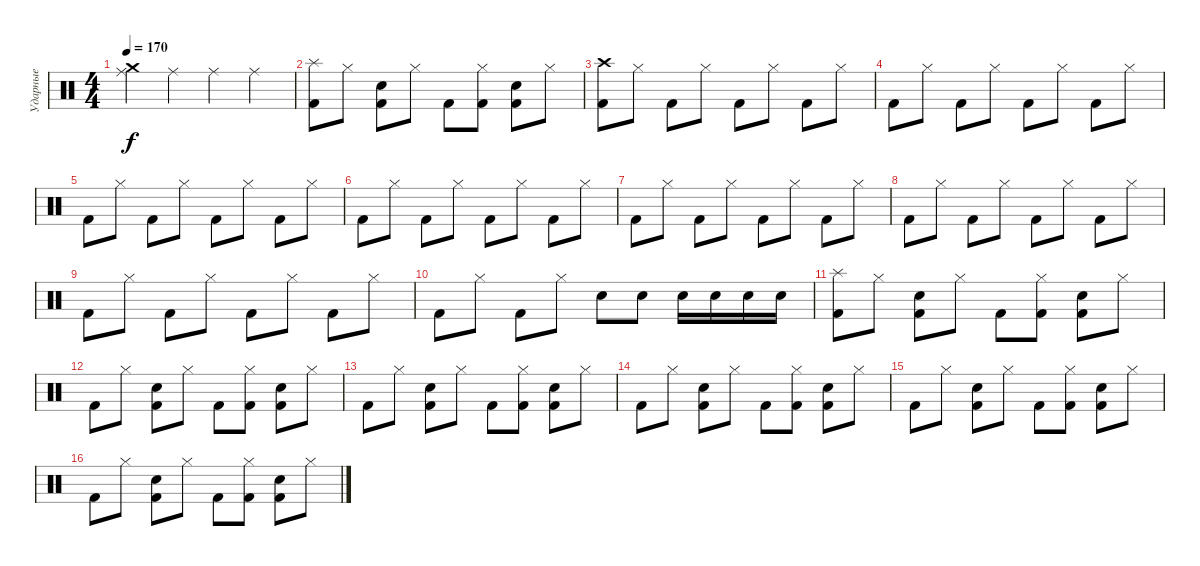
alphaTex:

\track ("Ударные" "Ударные") {instrument percussion}
\staff {score}
\articulation defaults
\ts (4 4)
\tempo 170
\clef neutral
\ks c
("Ride (middle)" "Crash medium (hit)").4{dy f} "Ride (middle)".4 "Ride (middle)".4 "Ride (middle)".4 |
("Splash (hit)" "Kick (hit) 2").8 "Hi-Hat (closed)".8 ("Kick (hit) 2" "Snare (hit) 2").8 "Hi-Hat (closed)".8 "Kick (hit) 2".8 ("Hi-Hat (closed)" "Kick (hit) 2").8 ("Kick (hit) 2" "Snare (hit) 2").8 "Hi-Hat (closed)".8 |
("Crash high (hit)" "Kick (hit) 2").8 "Hi-Hat (closed)".8 "Kick (hit) 2".8 "Hi-Hat (closed)".8 "Kick (hit) 2".8 "Hi-Hat (closed)".8 "Kick (hit) 2".8 "Hi-Hat (closed)".8 |
"Kick (hit) 2".8 "Hi-Hat (closed)".8 "Kick (hit) 2".8 "Hi-Hat (closed)".8 "Kick (hit) 2".8 "Hi-Hat (closed)".8 "Kick (hit) 2".8 "Hi-Hat (closed)".8 |
"Kick (hit) 2".8 "Hi-Hat (closed)".8 "Kick (hit) 2".8 "Hi-Hat (closed)".8 "Kick (hit) 2".8 "Hi-Hat (closed)".8 "Kick (hit) 2".8 "Hi-Hat (closed)".8 |
"Kick (hit) 2".8 "Hi-Hat (closed)".8 "Kick (hit) 2".8 "Hi-Hat (closed)".8 "Kick (hit) 2".8 "Hi-Hat (closed)".8 "Kick (hit) 2".8 "Hi-Hat (closed)".8 |
"Kick (hit) 2".8 "Hi-Hat (closed)".8 "Kick (hit) 2".8 "Hi-Hat (closed)".8 "Kick (hit) 2".8 "Hi-Hat (closed)".8 "Kick (hit) 2".8 "Hi-Hat (closed)".8 |
"Kick (hit) 2".8 "Hi-Hat (closed)".8 "Kick (hit) 2".8 "Hi-Hat (closed)".8 "Kick (hit) 2".8 "Hi-Hat (closed)".8 "Kick (hit) 2".8 "Hi-Hat (closed)".8 |
"Kick (hit) 2".8 "Hi-Hat (closed)".8 "Kick (hit) 2".8 "Hi-Hat (closed)".8 "Kick (hit) 2".8 "Hi-Hat (closed)".8 "Kick (hit) 2".8 "Hi-Hat (closed)".8 |
"Kick (hit) 2".8 "Hi-Hat (closed)".8 "Kick (hit) 2".8 "Hi-Hat (closed)".8 "Electric Snare (hit)".8 "Electric Snare (hit)".8 "Electric Snare (hit)".16 "Electric Snare (hit)".16 "Electric Snare (hit)".16 "Electric Snare (hit)".16 |
("Kick (hit) 2" "Splash (hit)").8 "Hi-Hat (closed)".8 ("Kick (hit) 2" "Snare (hit) 2").8 "Hi-Hat (closed)".8 "Kick (hit) 2".8 ("Hi-Hat (closed)" "Kick (hit) 2").8 ("Kick (hit) 2" "Snare (hit) 2").8 "Hi-Hat (closed)".8 |
"Kick (hit) 2".8 "Hi-Hat (closed)".8 ("Kick (hit) 2" "Snare (hit) 2").8 "Hi-Hat (closed)".8 "Kick (hit) 2".8 ("Hi-Hat (closed)" "Kick (hit) 2").8 ("Kick (hit) 2" "Snare (hit) 2").8 "Hi-Hat (closed)".8 |
"Kick (hit) 2".8 "Hi-Hat (closed)".8 ("Kick (hit) 2" "Snare (hit) 2").8 "Hi-Hat (closed)".8 "Kick (hit) 2".8 ("Hi-Hat (closed)" "Kick (hit) 2").8 ("Kick (hit) 2" "Snare (hit) 2").8 "Hi-Hat (closed)".8 |
"Kick (hit) 2".8 "Hi-Hat (closed)".8 ("Kick (hit) 2" "Snare (hit) 2").8 "Hi-Hat (closed)".8 "Kick (hit) 2".8 ("Hi-Hat (closed)" "Kick (hit) 2").8 ("Kick (hit) 2" "Snare (hit) 2").8 "Hi-Hat (closed)".8 |
"Kick (hit) 2".8 "Hi-Hat (closed)".8 ("Kick (hit) 2" "Snare (hit) 2").8 "Hi-Hat (closed)".8 "Kick (hit) 2".8 ("Hi-Hat (closed)" "Kick (hit) 2").8 ("Kick (hit) 2" "Snare (hit) 2").8 "Hi-Hat (closed)".8 |
"Kick (hit) 2".8 "Hi-Hat (closed)".8 ("Kick (hit) 2" "Snare (hit) 2").8 "Hi-Hat (closed)".8 "Kick (hit) 2".8 ("Hi-Hat (closed)" "Kick (hit) 2").8 ("Kick (hit) 2" "Snare (hit) 2").8 "Hi-Hat (closed)".8
